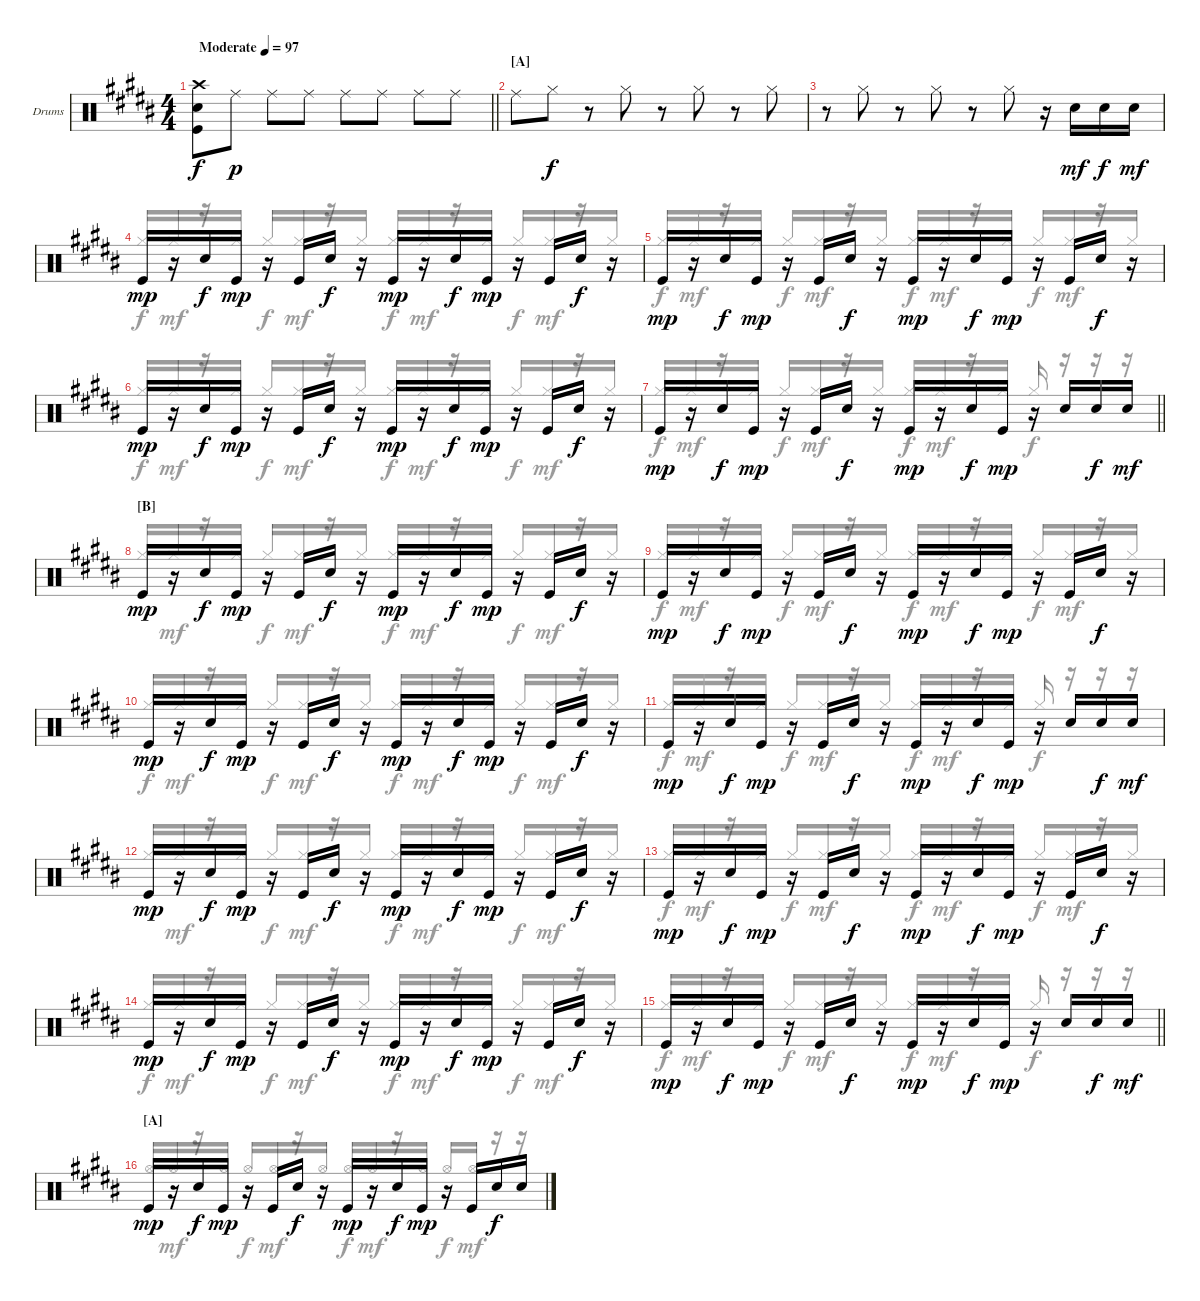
\bracketExtendMode groupsimilarinstruments
\firstSystemTrackNameOrientation horizontal
\otherSystemsTrackNameOrientation horizontal
\track ("Fabrizio Moretti" "Drums") {instrument percussion}
\staff {score}
\articulation defaults
\voice
\ts (4 4)
\beaming (8 2 2 2 2)
\ac
\tempo (97 "Moderate")
\clef neutral
\barLineRight lightlight
\ks b
("Snare (hit) 2" "Kick (hit)" "Crash high (hit)").8{dy f} "Ride (middle)".8{dy p} "Ride (middle)".8 "Ride (middle)".8 "Ride (middle)".8 "Ride (middle)".8 "Ride (middle)".8 "Ride (middle)".8 |
\section ("A" "")
"Ride (middle)".8 "Hi-Hat (closed)".8{dy f} r.8 "Hi-Hat (closed)".8 r.8 "Hi-Hat (closed)".8 r.8 "Hi-Hat (closed)".8 |
r.8 "Hi-Hat (closed)".8 r.8 "Hi-Hat (closed)".8 r.8 "Hi-Hat (closed)".8 r.16 "Snare (hit) 2".16{dy mf} "Snare (hit) 2".16{dy f} "Snare (hit) 2".16{dy mf} |
"Kick (hit)".16{dy mp} r.16 "Snare (hit) 2".16{dy f} "Kick (hit)".16{dy mp} r.16 "Kick (hit)".16 "Snare (hit) 2".16{dy f} r.16 "Kick (hit)".16{dy mp} r.16 "Snare (hit) 2".16{dy f} "Kick (hit)".16{dy mp} r.16 "Kick (hit)".16 "Snare (hit) 2".16{dy f} r.16 |
"Kick (hit)".16{dy mp} r.16 "Snare (hit) 2".16{dy f} "Kick (hit)".16{dy mp} r.16 "Kick (hit)".16 "Snare (hit) 2".16{dy f} r.16 "Kick (hit)".16{dy mp} r.16 "Snare (hit) 2".16{dy f} "Kick (hit)".16{dy mp} r.16 "Kick (hit)".16 "Snare (hit) 2".16{dy f} r.16 |
"Kick (hit)".16{dy mp} r.16 "Snare (hit) 2".16{dy f} "Kick (hit)".16{dy mp} r.16 "Kick (hit)".16 "Snare (hit) 2".16{dy f} r.16 "Kick (hit)".16{dy mp} r.16 "Snare (hit) 2".16{dy f} "Kick (hit)".16{dy mp} r.16 "Kick (hit)".16 "Snare (hit) 2".16{dy f} r.16 |
\barLineRight lightlight "Kick (hit)".16{dy mp}
r.16 "Snare (hit) 2".16{dy f} "Kick (hit)".16{dy mp} r.16 "Kick (hit)".16 "Snare (hit) 2".16{dy f} r.16 "Kick (hit)".16{dy mp} r.16 "Snare (hit) 2".16{dy f} "Kick (hit)".16{dy mp} r.16 "Snare (hit) 2".16 "Snare (hit) 2".16{dy f} "Snare (hit) 2".16{dy mf} |
\section ("B" "")
"Kick (hit)".16{dy mp} r.16 "Snare (hit) 2".16{dy f} "Kick (hit)".16{dy mp} r.16 "Kick (hit)".16 "Snare (hit) 2".16{dy f} r.16 "Kick (hit)".16{dy mp} r.16 "Snare (hit) 2".16{dy f} "Kick (hit)".16{dy mp} r.16 "Kick (hit)".16 "Snare (hit) 2".16{dy f} r.16 |
"Kick (hit)".16{dy mp} r.16 "Snare (hit) 2".16{dy f} "Kick (hit)".16{dy mp} r.16 "Kick (hit)".16 "Snare (hit) 2".16{dy f} r.16 "Kick (hit)".16{dy mp} r.16 "Snare (hit) 2".16{dy f} "Kick (hit)".16{dy mp} r.16 "Kick (hit)".16 "Snare (hit) 2".16{dy f} r.16 |
"Kick (hit)".16{dy mp} r.16 "Snare (hit) 2".16{dy f} "Kick (hit)".16{dy mp} r.16 "Kick (hit)".16 "Snare (hit) 2".16{dy f} r.16 "Kick (hit)".16{dy mp} r.16 "Snare (hit) 2".16{dy f} "Kick (hit)".16{dy mp} r.16 "Kick (hit)".16 "Snare (hit) 2".16{dy f} r.16 |
"Kick (hit)".16{dy mp} r.16 "Snare (hit) 2".16{dy f} "Kick (hit)".16{dy mp} r.16 "Kick (hit)".16 "Snare (hit) 2".16{dy f} r.16 "Kick (hit)".16{dy mp} r.16 "Snare (hit) 2".16{dy f} "Kick (hit)".16{dy mp} r.16 "Snare (hit) 2".16 "Snare (hit) 2".16{dy f} "Snare (hit) 2".16{dy mf} |
"Kick (hit)".16{dy mp} r.16 "Snare (hit) 2".16{dy f} "Kick (hit)".16{dy mp} r.16 "Kick (hit)".16 "Snare (hit) 2".16{dy f} r.16 "Kick (hit)".16{dy mp} r.16 "Snare (hit) 2".16{dy f} "Kick (hit)".16{dy mp} r.16 "Kick (hit)".16 "Snare (hit) 2".16{dy f} r.16 |
"Kick (hit)".16{dy mp} r.16 "Snare (hit) 2".16{dy f} "Kick (hit)".16{dy mp} r.16 "Kick (hit)".16 "Snare (hit) 2".16{dy f} r.16 "Kick (hit)".16{dy mp} r.16 "Snare (hit) 2".16{dy f} "Kick (hit)".16{dy mp} r.16 "Kick (hit)".16 "Snare (hit) 2".16{dy f} r.16 |
"Kick (hit)".16{dy mp} r.16 "Snare (hit) 2".16{dy f} "Kick (hit)".16{dy mp} r.16 "Kick (hit)".16 "Snare (hit) 2".16{dy f} r.16 "Kick (hit)".16{dy mp} r.16 "Snare (hit) 2".16{dy f} "Kick (hit)".16{dy mp} r.16 "Kick (hit)".16 "Snare (hit) 2".16{dy f} r.16 |
\barLineRight lightlight "Kick (hit)".16{dy mp}
r.16 "Snare (hit) 2".16{dy f} "Kick (hit)".16{dy mp} r.16 "Kick (hit)".16 "Snare (hit) 2".16{dy f} r.16 "Kick (hit)".16{dy mp} r.16 "Snare (hit) 2".16{dy f} "Kick (hit)".16{dy mp} r.16 "Snare (hit) 2".16 "Snare (hit) 2".16{dy f} "Snare (hit) 2".16{dy mf} |
\section ("A" "")
"Kick (hit)".16{dy mp} r.16 "Snare (hit) 2".16{dy f} "Kick (hit)".16{dy mp} r.16 "Kick (hit)".16 "Snare (hit) 2".16{dy f} r.16 "Kick (hit)".16{dy mp} r.16 "Snare (hit) 2".16{dy f} "Kick (hit)".16{dy mp} r.16 "Kick (hit)".16 "Snare (hit) 2".16{dy f} "Snare (hit) 2".16
\voice
\clef neutral
\ottava regular
\simile none
\barLineRight lightlight
\ks b
|
|
|
"Hi-Hat (closed)".16{beam invert} "Hi-Hat (closed)".16{dy mf} r.16 "Hi-Hat (closed)".16 "Hi-Hat (closed)".16{dy f beam invert} "Hi-Hat (closed)".16{dy mf} r.16 "Hi-Hat (closed)".16 "Hi-Hat (closed)".16{dy f beam invert} "Hi-Hat (closed)".16{dy mf} r.16 "Hi-Hat (closed)".16 "Hi-Hat (closed)".16{dy f beam invert} "Hi-Hat (closed)".16{dy mf} r.16 "Hi-Hat (closed)".16 |
"Hi-Hat (closed)".16{dy f beam invert} "Hi-Hat (closed)".16{dy mf} r.16 "Hi-Hat (closed)".16 "Hi-Hat (closed)".16{dy f beam invert} "Hi-Hat (closed)".16{dy mf} r.16 "Hi-Hat (closed)".16 "Hi-Hat (closed)".16{dy f beam invert} "Hi-Hat (closed)".16{dy mf} r.16 "Hi-Hat (closed)".16 "Hi-Hat (closed)".16{dy f beam invert} "Hi-Hat (closed)".16{dy mf} r.16 "Hi-Hat (closed)".16 |
"Hi-Hat (closed)".16{dy f beam invert} "Hi-Hat (closed)".16{dy mf} r.16 "Hi-Hat (closed)".16 "Hi-Hat (closed)".16{dy f beam invert} "Hi-Hat (closed)".16{dy mf} r.16 "Hi-Hat (closed)".16 "Hi-Hat (closed)".16{dy f beam invert} "Hi-Hat (closed)".16{dy mf} r.16 "Hi-Hat (closed)".16 "Hi-Hat (closed)".16{dy f beam invert} "Hi-Hat (closed)".16{dy mf} r.16 "Hi-Hat (closed)".16 |
\barLineRight lightlight "Hi-Hat (closed)".16{dy f beam invert} "Hi-Hat (closed)".16{dy mf}
r.16 "Hi-Hat (closed)".16 "Hi-Hat (closed)".16{dy f beam invert} "Hi-Hat (closed)".16{dy mf} r.16 "Hi-Hat (closed)".16 "Hi-Hat (closed)".16{dy f beam invert} "Hi-Hat (closed)".16{dy mf} r.16 "Hi-Hat (closed)".16 "Hi-Hat (closed)".16{dy f beam invert} r.16 r.16 r.16 |
"Hi-Hat (closed)".16{beam invert} "Hi-Hat (closed)".16{dy mf} r.16 "Hi-Hat (closed)".16 "Hi-Hat (closed)".16{dy f beam invert} "Hi-Hat (closed)".16{dy mf} r.16 "Hi-Hat (closed)".16 "Hi-Hat (closed)".16{dy f beam invert} "Hi-Hat (closed)".16{dy mf} r.16 "Hi-Hat (closed)".16 "Hi-Hat (closed)".16{dy f beam invert} "Hi-Hat (closed)".16{dy mf} r.16 "Hi-Hat (closed)".16 |
"Hi-Hat (closed)".16{dy f beam invert} "Hi-Hat (closed)".16{dy mf} r.16 "Hi-Hat (closed)".16 "Hi-Hat (closed)".16{dy f beam invert} "Hi-Hat (closed)".16{dy mf} r.16 "Hi-Hat (closed)".16 "Hi-Hat (closed)".16{dy f beam invert} "Hi-Hat (closed)".16{dy mf} r.16 "Hi-Hat (closed)".16 "Hi-Hat (closed)".16{dy f beam invert} "Hi-Hat (closed)".16{dy mf} r.16 "Hi-Hat (closed)".16 |
"Hi-Hat (closed)".16{dy f beam invert} "Hi-Hat (closed)".16{dy mf beam invert} r.16{beam invert} "Hi-Hat (closed)".16{beam invert} "Hi-Hat (closed)".16{dy f beam invert} "Hi-Hat (closed)".16{dy mf} r.16 "Hi-Hat (closed)".16 "Hi-Hat (closed)".16{dy f beam invert} "Hi-Hat (closed)".16{dy mf} r.16 "Hi-Hat (closed)".16 "Hi-Hat (closed)".16{dy f beam invert} "Hi-Hat (closed)".16{dy mf} r.16 "Hi-Hat (closed)".16 |
"Hi-Hat (closed)".16{dy f beam invert} "Hi-Hat (closed)".16{dy mf} r.16 "Hi-Hat (closed)".16 "Hi-Hat (closed)".16{dy f beam invert} "Hi-Hat (closed)".16{dy mf} r.16 "Hi-Hat (closed)".16 "Hi-Hat (closed)".16{dy f beam invert} "Hi-Hat (closed)".16{dy mf} r.16 "Hi-Hat (closed)".16 "Hi-Hat (closed)".16{dy f beam invert} r.16 r.16 r.16 |
"Hi-Hat (closed)".16{beam invert} "Hi-Hat (closed)".16{dy mf} r.16 "Hi-Hat (closed)".16 "Hi-Hat (closed)".16{dy f beam invert} "Hi-Hat (closed)".16{dy mf} r.16 "Hi-Hat (closed)".16 "Hi-Hat (closed)".16{dy f beam invert} "Hi-Hat (closed)".16{dy mf} r.16 "Hi-Hat (closed)".16 "Hi-Hat (closed)".16{dy f beam invert} "Hi-Hat (closed)".16{dy mf} r.16 "Hi-Hat (closed)".16 |
"Hi-Hat (closed)".16{dy f beam invert} "Hi-Hat (closed)".16{dy mf} r.16 "Hi-Hat (closed)".16 "Hi-Hat (closed)".16{dy f beam invert} "Hi-Hat (closed)".16{dy mf} r.16 "Hi-Hat (closed)".16 "Hi-Hat (closed)".16{dy f beam invert} "Hi-Hat (closed)".16{dy mf} r.16 "Hi-Hat (closed)".16 "Hi-Hat (closed)".16{dy f beam invert} "Hi-Hat (closed)".16{dy mf} r.16 "Hi-Hat (closed)".16 |
"Hi-Hat (closed)".16{dy f beam invert} "Hi-Hat (closed)".16{dy mf} r.16 "Hi-Hat (closed)".16 "Hi-Hat (closed)".16{dy f beam invert} "Hi-Hat (closed)".16{dy mf} r.16 "Hi-Hat (closed)".16 "Hi-Hat (closed)".16{dy f beam invert} "Hi-Hat (closed)".16{dy mf} r.16 "Hi-Hat (closed)".16 "Hi-Hat (closed)".16{dy f beam invert} "Hi-Hat (closed)".16{dy mf} r.16 "Hi-Hat (closed)".16 |
\barLineRight lightlight "Hi-Hat (closed)".16{dy f beam invert} "Hi-Hat (closed)".16{dy mf}
r.16 "Hi-Hat (closed)".16 "Hi-Hat (closed)".16{dy f beam invert} "Hi-Hat (closed)".16{dy mf} r.16 "Hi-Hat (closed)".16 "Hi-Hat (closed)".16{dy f beam invert} "Hi-Hat (closed)".16{dy mf} r.16 "Hi-Hat (closed)".16 "Hi-Hat (closed)".16{dy f beam invert} r.16 r.16 r.16 |
"Hi-Hat (open)".16{beam invert} "Hi-Hat (open)".16{dy mf} r.16 "Hi-Hat (open)".16 "Hi-Hat (open)".16{dy f beam invert} "Hi-Hat (open)".16{dy mf} r.16 "Hi-Hat (open)".16 "Hi-Hat (open)".16{dy f beam invert} "Hi-Hat (open)".16{dy mf} r.16 "Hi-Hat (open)".16 "Hi-Hat (open)".16{dy f beam invert} "Hi-Hat (open)".16{dy mf} r.16 r.16
